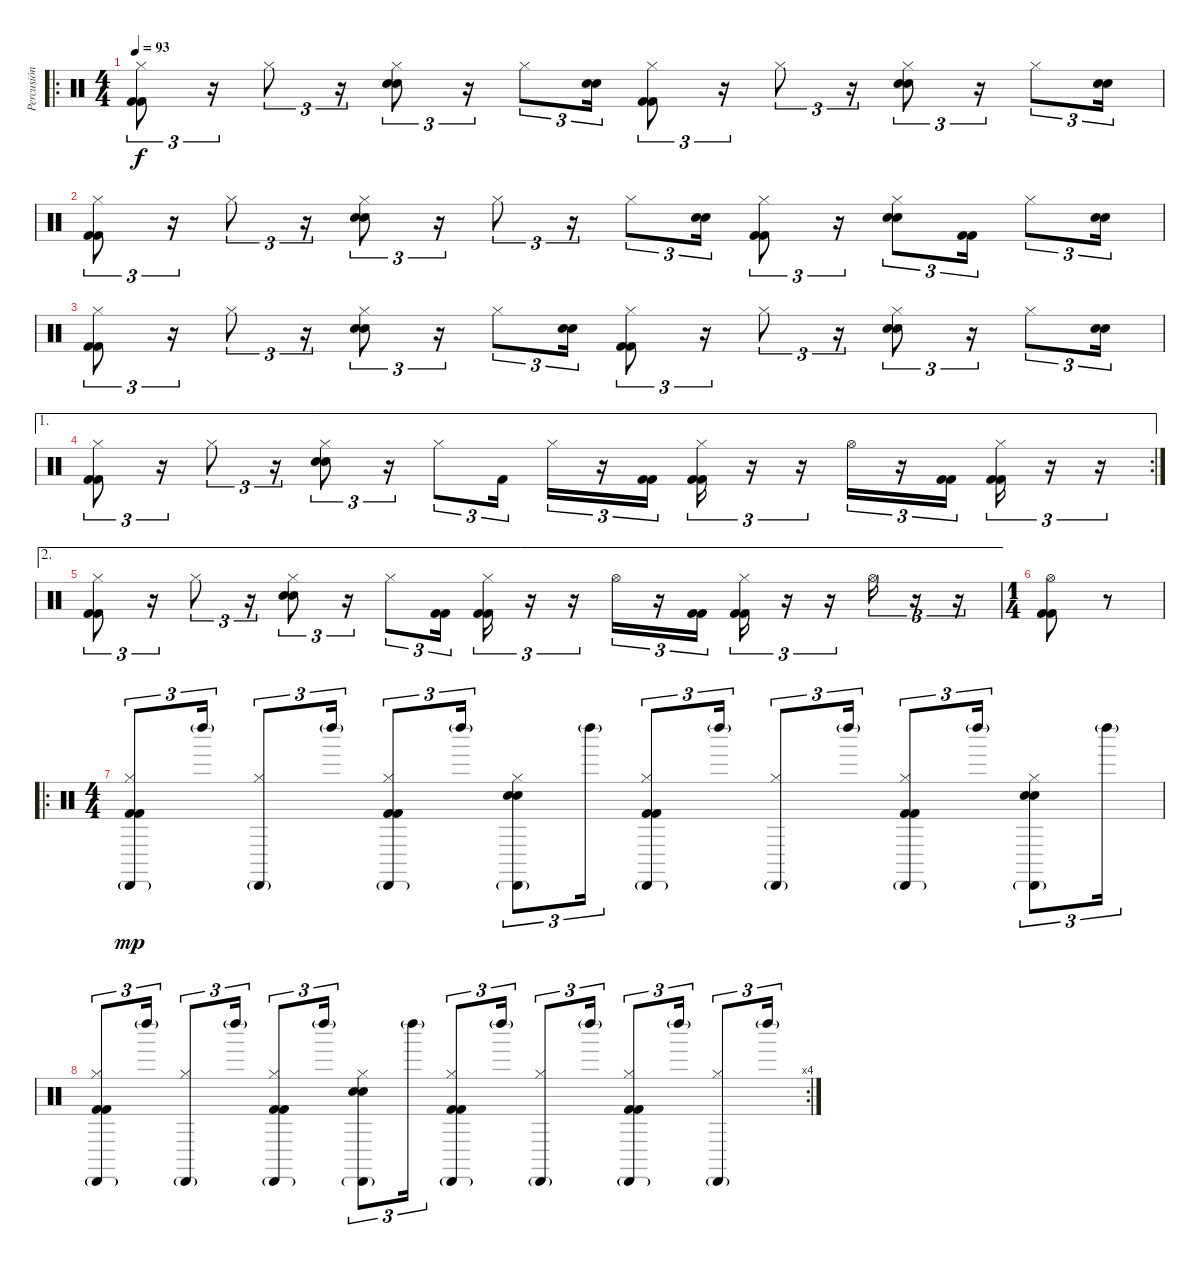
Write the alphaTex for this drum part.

\track ("Percusión" "Percusión") {instrument percussion}
\staff {score}
\articulation defaults
\ro
\ts (4 4)
\tempo 93
\clef neutral
\ks c
("Hi-Hat (closed)" "Kick (hit) 2" "Kick (hit) 2").8{tu (3 2) dy f} r.16{tu (3 2)} "Hi-Hat (closed)".8{tu (3 2)} r.16{tu (3 2)} ("Hi-Hat (closed)" "Electric Snare (hit)" "Electric Snare (hit)").8{tu (3 2)} r.16{tu (3 2)} "Hi-Hat (closed)".8{tu (3 2)} ("Electric Snare (hit)" "Electric Snare (hit)").16{tu (3 2)} ("Hi-Hat (closed)" "Kick (hit) 2" "Kick (hit) 2").8{tu (3 2)} r.16{tu (3 2)} "Hi-Hat (closed)".8{tu (3 2)} r.16{tu (3 2)} ("Hi-Hat (closed)" "Electric Snare (hit)" "Electric Snare (hit)").8{tu (3 2)} r.16{tu (3 2)} "Hi-Hat (closed)".8{tu (3 2)} ("Electric Snare (hit)" "Electric Snare (hit)").16{tu (3 2)} |
("Hi-Hat (closed)" "Kick (hit) 2" "Kick (hit) 2").8{tu (3 2)} r.16{tu (3 2)} "Hi-Hat (closed)".8{tu (3 2)} r.16{tu (3 2)} ("Hi-Hat (closed)" "Electric Snare (hit)" "Electric Snare (hit)").8{tu (3 2)} r.16{tu (3 2)} "Hi-Hat (closed)".8{tu (3 2)} r.16{tu (3 2)} "Hi-Hat (closed)".8{tu (3 2)} ("Electric Snare (hit)" "Electric Snare (hit)").16{tu (3 2)} ("Hi-Hat (closed)" "Kick (hit) 2" "Kick (hit) 2").8{tu (3 2)} r.16{tu (3 2)} ("Hi-Hat (closed)" "Electric Snare (hit)" "Electric Snare (hit)").8{tu (3 2)} ("Kick (hit) 2" "Kick (hit) 2").16{tu (3 2)} "Hi-Hat (closed)".8{tu (3 2)} ("Electric Snare (hit)" "Electric Snare (hit)").16{tu (3 2)} |
("Hi-Hat (closed)" "Kick (hit) 2" "Kick (hit) 2").8{tu (3 2)} r.16{tu (3 2)} "Hi-Hat (closed)".8{tu (3 2)} r.16{tu (3 2)} ("Hi-Hat (closed)" "Electric Snare (hit)" "Electric Snare (hit)").8{tu (3 2)} r.16{tu (3 2)} "Hi-Hat (closed)".8{tu (3 2)} ("Electric Snare (hit)" "Electric Snare (hit)").16{tu (3 2)} ("Hi-Hat (closed)" "Kick (hit) 2" "Kick (hit) 2").8{tu (3 2)} r.16{tu (3 2)} "Hi-Hat (closed)".8{tu (3 2)} r.16{tu (3 2)} ("Hi-Hat (closed)" "Electric Snare (hit)" "Electric Snare (hit)").8{tu (3 2)} r.16{tu (3 2)} "Hi-Hat (closed)".8{tu (3 2)} ("Electric Snare (hit)" "Electric Snare (hit)").16{tu (3 2)} |
\ae 1
\rc 2
("Hi-Hat (closed)" "Kick (hit) 2" "Kick (hit) 2").8{tu (3 2)} r.16{tu (3 2)} "Hi-Hat (closed)".8{tu (3 2)} r.16{tu (3 2)} ("Hi-Hat (closed)" "Electric Snare (hit)" "Electric Snare (hit)").8{tu (3 2)} r.16{tu (3 2)} "Hi-Hat (closed)".8{tu (3 2)} "Kick (hit) 2".16{tu (3 2)} "Hi-Hat (closed)".16{tu (3 2)} r.16{tu (3 2)} ("Kick (hit) 2" "Kick (hit) 2").16{tu (3 2)} ("Hi-Hat (closed)" "Kick (hit) 2" "Kick (hit) 2").16{tu (3 2)} r.16{tu (3 2)} r.16{tu (3 2)} "Hi-Hat (open)".16{tu (3 2)} r.16{tu (3 2)} ("Kick (hit) 2" "Kick (hit) 2").16{tu (3 2)} ("Hi-Hat (closed)" "Kick (hit) 2" "Kick (hit) 2").16{tu (3 2)} r.16{tu (3 2)} r.16{tu (3 2)} |
\ae 2
("Hi-Hat (closed)" "Kick (hit) 2" "Kick (hit) 2").8{tu (3 2)} r.16{tu (3 2)} "Hi-Hat (closed)".8{tu (3 2)} r.16{tu (3 2)} ("Hi-Hat (closed)" "Electric Snare (hit)" "Electric Snare (hit)").8{tu (3 2)} r.16{tu (3 2)} "Hi-Hat (closed)".8{tu (3 2)} ("Kick (hit) 2" "Kick (hit) 2").16{tu (3 2)} ("Hi-Hat (closed)" "Kick (hit) 2" "Kick (hit) 2").16{tu (3 2)} r.16{tu (3 2)} r.16{tu (3 2)} "Hi-Hat (open)".16{tu (3 2)} r.16{tu (3 2)} ("Kick (hit) 2" "Kick (hit) 2").16{tu (3 2)} ("Hi-Hat (closed)" "Kick (hit) 2" "Kick (hit) 2").16{tu (3 2)} r.16{tu (3 2)} r.16{tu (3 2)} "Hi-Hat (open)".16{tu (3 2)} r.16{tu (3 2)} r.16{tu (3 2)} |
\ts (1 4)
("Hi-Hat (open)" "Kick (hit) 2" "Kick (hit) 2").8 r.8 |
\ro
\ts (4 4)
("Hi-Hat (closed)" "Cabasa (hit)"{g} "Kick (hit) 2" "Kick (hit) 2").8{tu (3 2) dy mp} "Left Maraca (hit)"{g}.16{tu (3 2)} ("Hi-Hat (closed)" "Cabasa (hit)"{g}).8{tu (3 2)} "Left Maraca (hit)"{g}.16{tu (3 2)} ("Hi-Hat (closed)" "Cabasa (hit)"{g} "Kick (hit) 2" "Kick (hit) 2").8{tu (3 2)} "Left Maraca (hit)"{g}.16{tu (3 2)} ("Hi-Hat (closed)" "Cabasa (hit)"{g} "Hand Clap (hit)" "Hand Clap (hit)").8{tu (3 2)} "Left Maraca (hit)"{g}.16{tu (3 2)} ("Hi-Hat (closed)" "Cabasa (hit)"{g} "Kick (hit) 2" "Kick (hit) 2").8{tu (3 2)} "Left Maraca (hit)"{g}.16{tu (3 2)} ("Hi-Hat (closed)" "Cabasa (hit)"{g}).8{tu (3 2)} "Left Maraca (hit)"{g}.16{tu (3 2)} ("Hi-Hat (closed)" "Cabasa (hit)"{g} "Kick (hit) 2" "Kick (hit) 2").8{tu (3 2)} "Left Maraca (hit)"{g}.16{tu (3 2)} ("Hi-Hat (closed)" "Cabasa (hit)"{g} "Hand Clap (hit)" "Hand Clap (hit)").8{tu (3 2)} "Left Maraca (hit)"{g}.16{tu (3 2)} |
\rc 4
("Hi-Hat (closed)" "Cabasa (hit)"{g} "Kick (hit) 2" "Kick (hit) 2").8{tu (3 2)} "Left Maraca (hit)"{g}.16{tu (3 2)} ("Hi-Hat (closed)" "Cabasa (hit)"{g}).8{tu (3 2)} "Left Maraca (hit)"{g}.16{tu (3 2)} ("Hi-Hat (closed)" "Cabasa (hit)"{g} "Kick (hit) 2" "Kick (hit) 2").8{tu (3 2)} "Left Maraca (hit)"{g}.16{tu (3 2)} ("Hi-Hat (closed)" "Cabasa (hit)"{g} "Hand Clap (hit)" "Hand Clap (hit)").8{tu (3 2)} "Left Maraca (hit)"{g}.16{tu (3 2)} ("Hi-Hat (closed)" "Cabasa (hit)"{g} "Kick (hit) 2" "Kick (hit) 2").8{tu (3 2)} "Left Maraca (hit)"{g}.16{tu (3 2)} ("Hi-Hat (closed)" "Cabasa (hit)"{g}).8{tu (3 2)} "Left Maraca (hit)"{g}.16{tu (3 2)} ("Hi-Hat (closed)" "Cabasa (hit)"{g} "Kick (hit) 2" "Kick (hit) 2").8{tu (3 2)} "Left Maraca (hit)"{g}.16{tu (3 2)} ("Hi-Hat (closed)" "Cabasa (hit)"{g}).8{tu (3 2)} "Left Maraca (hit)"{g}.16{tu (3 2)}
